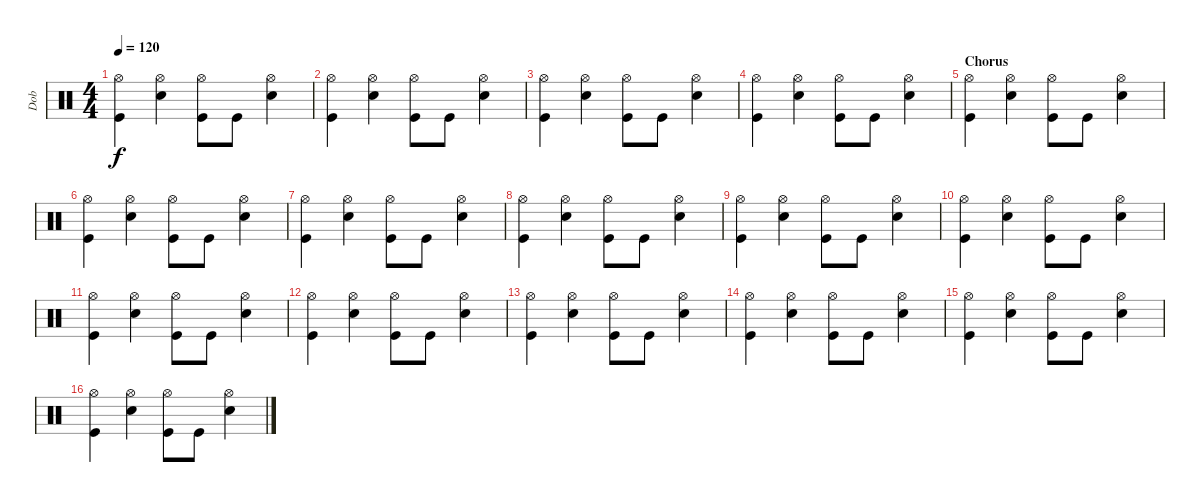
\track ("Dob" "Dob") {instrument percussion}
\staff {score}
\articulation defaults
\ts (4 4)
\tempo 120
\clef neutral
\ks c
("Hi-Hat (open)" "Kick (hit)").4{dy f} ("Hi-Hat (open)" "Snare (hit) 2").4 ("Hi-Hat (open)" "Kick (hit)").8 "Kick (hit)".8 ("Hi-Hat (open)" "Snare (hit) 2").4 |
("Hi-Hat (open)" "Kick (hit)").4 ("Hi-Hat (open)" "Snare (hit) 2").4 ("Hi-Hat (open)" "Kick (hit)").8 "Kick (hit)".8 ("Hi-Hat (open)" "Snare (hit) 2").4 |
("Hi-Hat (open)" "Kick (hit)").4 ("Hi-Hat (open)" "Snare (hit) 2").4 ("Hi-Hat (open)" "Kick (hit)").8 "Kick (hit)".8 ("Hi-Hat (open)" "Snare (hit) 2").4 |
("Hi-Hat (open)" "Kick (hit)").4 ("Hi-Hat (open)" "Snare (hit) 2").4 ("Hi-Hat (open)" "Kick (hit)").8 "Kick (hit)".8 ("Hi-Hat (open)" "Snare (hit) 2").4 |
\section ("" "Chorus")
("Hi-Hat (open)" "Kick (hit)").4 ("Hi-Hat (open)" "Snare (hit) 2").4 ("Hi-Hat (open)" "Kick (hit)").8 "Kick (hit)".8 ("Hi-Hat (open)" "Snare (hit) 2").4 |
("Hi-Hat (open)" "Kick (hit)").4 ("Hi-Hat (open)" "Snare (hit) 2").4 ("Hi-Hat (open)" "Kick (hit)").8 "Kick (hit)".8 ("Hi-Hat (open)" "Snare (hit) 2").4 |
("Hi-Hat (open)" "Kick (hit)").4 ("Hi-Hat (open)" "Snare (hit) 2").4 ("Hi-Hat (open)" "Kick (hit)").8 "Kick (hit)".8 ("Hi-Hat (open)" "Snare (hit) 2").4 |
("Hi-Hat (open)" "Kick (hit)").4 ("Hi-Hat (open)" "Snare (hit) 2").4 ("Hi-Hat (open)" "Kick (hit)").8 "Kick (hit)".8 ("Hi-Hat (open)" "Snare (hit) 2").4 |
("Hi-Hat (open)" "Kick (hit)").4 ("Hi-Hat (open)" "Snare (hit) 2").4 ("Hi-Hat (open)" "Kick (hit)").8 "Kick (hit)".8 ("Hi-Hat (open)" "Snare (hit) 2").4 |
("Hi-Hat (open)" "Kick (hit)").4 ("Hi-Hat (open)" "Snare (hit) 2").4 ("Hi-Hat (open)" "Kick (hit)").8 "Kick (hit)".8 ("Hi-Hat (open)" "Snare (hit) 2").4 |
("Hi-Hat (open)" "Kick (hit)").4 ("Hi-Hat (open)" "Snare (hit) 2").4 ("Hi-Hat (open)" "Kick (hit)").8 "Kick (hit)".8 ("Hi-Hat (open)" "Snare (hit) 2").4 |
("Hi-Hat (open)" "Kick (hit)").4 ("Hi-Hat (open)" "Snare (hit) 2").4 ("Hi-Hat (open)" "Kick (hit)").8 "Kick (hit)".8 ("Hi-Hat (open)" "Snare (hit) 2").4 |
("Hi-Hat (open)" "Kick (hit)").4 ("Hi-Hat (open)" "Snare (hit) 2").4 ("Hi-Hat (open)" "Kick (hit)").8 "Kick (hit)".8 ("Hi-Hat (open)" "Snare (hit) 2").4 |
("Hi-Hat (open)" "Kick (hit)").4 ("Hi-Hat (open)" "Snare (hit) 2").4 ("Hi-Hat (open)" "Kick (hit)").8 "Kick (hit)".8 ("Hi-Hat (open)" "Snare (hit) 2").4 |
("Hi-Hat (open)" "Kick (hit)").4 ("Hi-Hat (open)" "Snare (hit) 2").4 ("Hi-Hat (open)" "Kick (hit)").8 "Kick (hit)".8 ("Hi-Hat (open)" "Snare (hit) 2").4 |
("Hi-Hat (open)" "Kick (hit)").4 ("Hi-Hat (open)" "Snare (hit) 2").4 ("Hi-Hat (open)" "Kick (hit)").8 "Kick (hit)".8 ("Hi-Hat (open)" "Snare (hit) 2").4
